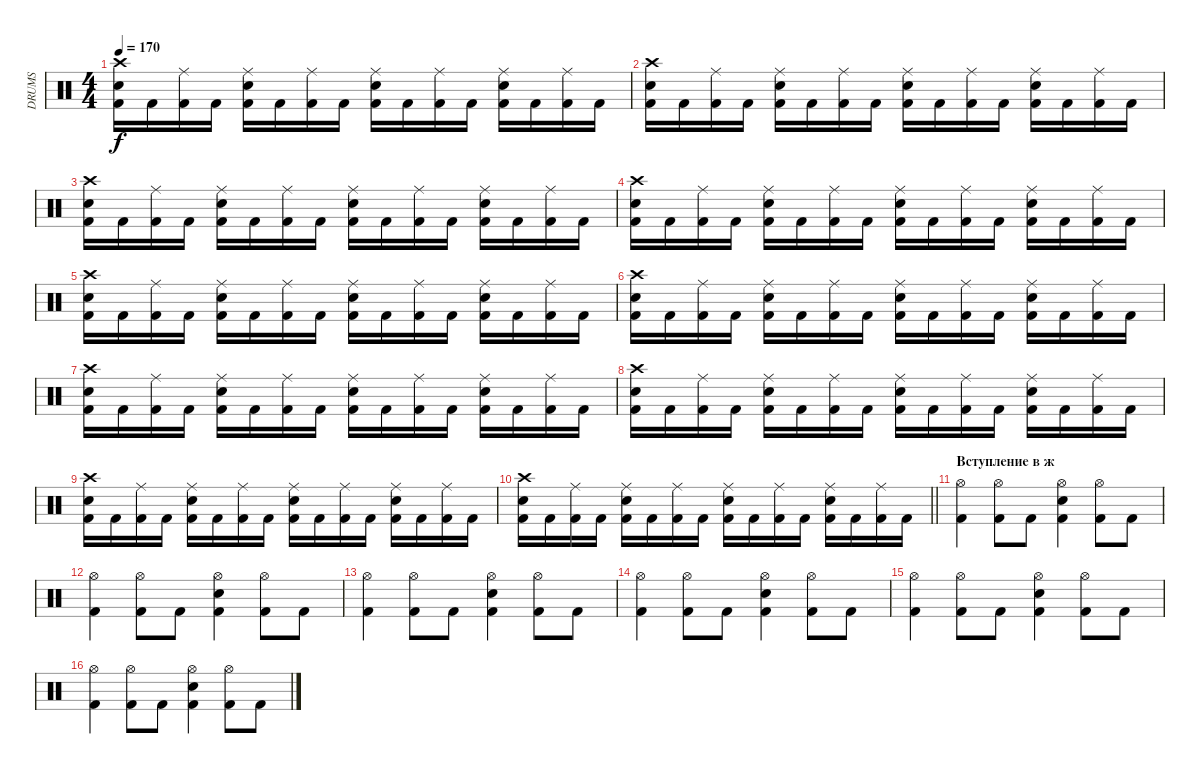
\track ("DRUMS" "DRUMS") {instrument percussion}
\staff {score}
\articulation defaults
\ts (4 4)
\tempo 170
\clef neutral
\ks c
("Kick (hit) 2" "Snare (hit) 2" "Crash high (hit)").16{dy f} "Kick (hit) 2".16 ("Kick (hit) 2" "Ride (middle)").16 "Kick (hit) 2".16 ("Kick (hit) 2" "Snare (hit) 2" "Ride (middle)").16 "Kick (hit) 2".16 ("Kick (hit) 2" "Ride (middle)").16 "Kick (hit) 2".16 ("Kick (hit) 2" "Snare (hit) 2" "Ride (middle)").16 "Kick (hit) 2".16 ("Kick (hit) 2" "Ride (middle)").16 "Kick (hit) 2".16 ("Kick (hit) 2" "Snare (hit) 2" "Ride (middle)").16 "Kick (hit) 2".16 ("Kick (hit) 2" "Ride (middle)").16 "Kick (hit) 2".16 |
("Kick (hit) 2" "Snare (hit) 2" "Crash high (hit)").16 "Kick (hit) 2".16 ("Kick (hit) 2" "Ride (middle)").16 "Kick (hit) 2".16 ("Kick (hit) 2" "Snare (hit) 2" "Ride (middle)").16 "Kick (hit) 2".16 ("Kick (hit) 2" "Ride (middle)").16 "Kick (hit) 2".16 ("Kick (hit) 2" "Snare (hit) 2" "Ride (middle)").16 "Kick (hit) 2".16 ("Kick (hit) 2" "Ride (middle)").16 "Kick (hit) 2".16 ("Kick (hit) 2" "Snare (hit) 2" "Ride (middle)").16 "Kick (hit) 2".16 ("Kick (hit) 2" "Ride (middle)").16 "Kick (hit) 2".16 |
("Kick (hit) 2" "Snare (hit) 2" "Crash high (hit)").16 "Kick (hit) 2".16 ("Kick (hit) 2" "Ride (middle)").16 "Kick (hit) 2".16 ("Kick (hit) 2" "Snare (hit) 2" "Ride (middle)").16 "Kick (hit) 2".16 ("Kick (hit) 2" "Ride (middle)").16 "Kick (hit) 2".16 ("Kick (hit) 2" "Snare (hit) 2" "Ride (middle)").16 "Kick (hit) 2".16 ("Kick (hit) 2" "Ride (middle)").16 "Kick (hit) 2".16 ("Kick (hit) 2" "Snare (hit) 2" "Ride (middle)").16 "Kick (hit) 2".16 ("Kick (hit) 2" "Ride (middle)").16 "Kick (hit) 2".16 |
("Kick (hit) 2" "Snare (hit) 2" "Crash high (hit)").16 "Kick (hit) 2".16 ("Kick (hit) 2" "Ride (middle)").16 "Kick (hit) 2".16 ("Kick (hit) 2" "Snare (hit) 2" "Ride (middle)").16 "Kick (hit) 2".16 ("Kick (hit) 2" "Ride (middle)").16 "Kick (hit) 2".16 ("Kick (hit) 2" "Snare (hit) 2" "Ride (middle)").16 "Kick (hit) 2".16 ("Kick (hit) 2" "Ride (middle)").16 "Kick (hit) 2".16 ("Kick (hit) 2" "Snare (hit) 2" "Ride (middle)").16 "Kick (hit) 2".16 ("Kick (hit) 2" "Ride (middle)").16 "Kick (hit) 2".16 |
("Kick (hit) 2" "Snare (hit) 2" "Crash high (hit)").16 "Kick (hit) 2".16 ("Kick (hit) 2" "Ride (middle)").16 "Kick (hit) 2".16 ("Kick (hit) 2" "Snare (hit) 2" "Ride (middle)").16 "Kick (hit) 2".16 ("Kick (hit) 2" "Ride (middle)").16 "Kick (hit) 2".16 ("Kick (hit) 2" "Snare (hit) 2" "Ride (middle)").16 "Kick (hit) 2".16 ("Kick (hit) 2" "Ride (middle)").16 "Kick (hit) 2".16 ("Kick (hit) 2" "Snare (hit) 2" "Ride (middle)").16 "Kick (hit) 2".16 ("Kick (hit) 2" "Ride (middle)").16 "Kick (hit) 2".16 |
("Kick (hit) 2" "Snare (hit) 2" "Crash high (hit)").16 "Kick (hit) 2".16 ("Kick (hit) 2" "Ride (middle)").16 "Kick (hit) 2".16 ("Kick (hit) 2" "Snare (hit) 2" "Ride (middle)").16 "Kick (hit) 2".16 ("Kick (hit) 2" "Ride (middle)").16 "Kick (hit) 2".16 ("Kick (hit) 2" "Snare (hit) 2" "Ride (middle)").16 "Kick (hit) 2".16 ("Kick (hit) 2" "Ride (middle)").16 "Kick (hit) 2".16 ("Kick (hit) 2" "Snare (hit) 2" "Ride (middle)").16 "Kick (hit) 2".16 ("Kick (hit) 2" "Ride (middle)").16 "Kick (hit) 2".16 |
("Kick (hit) 2" "Snare (hit) 2" "Crash high (hit)").16 "Kick (hit) 2".16 ("Kick (hit) 2" "Ride (middle)").16 "Kick (hit) 2".16 ("Kick (hit) 2" "Snare (hit) 2" "Ride (middle)").16 "Kick (hit) 2".16 ("Kick (hit) 2" "Ride (middle)").16 "Kick (hit) 2".16 ("Kick (hit) 2" "Snare (hit) 2" "Ride (middle)").16 "Kick (hit) 2".16 ("Kick (hit) 2" "Ride (middle)").16 "Kick (hit) 2".16 ("Kick (hit) 2" "Snare (hit) 2" "Ride (middle)").16 "Kick (hit) 2".16 ("Kick (hit) 2" "Ride (middle)").16 "Kick (hit) 2".16 |
("Kick (hit) 2" "Snare (hit) 2" "Crash high (hit)").16 "Kick (hit) 2".16 ("Kick (hit) 2" "Ride (middle)").16 "Kick (hit) 2".16 ("Kick (hit) 2" "Snare (hit) 2" "Ride (middle)").16 "Kick (hit) 2".16 ("Kick (hit) 2" "Ride (middle)").16 "Kick (hit) 2".16 ("Kick (hit) 2" "Snare (hit) 2" "Ride (middle)").16 "Kick (hit) 2".16 ("Kick (hit) 2" "Ride (middle)").16 "Kick (hit) 2".16 ("Kick (hit) 2" "Snare (hit) 2" "Ride (middle)").16 "Kick (hit) 2".16 ("Kick (hit) 2" "Ride (middle)").16 "Kick (hit) 2".16 |
("Kick (hit) 2" "Snare (hit) 2" "Crash high (hit)").16 "Kick (hit) 2".16 ("Kick (hit) 2" "Ride (middle)").16 "Kick (hit) 2".16 ("Kick (hit) 2" "Snare (hit) 2" "Ride (middle)").16 "Kick (hit) 2".16 ("Kick (hit) 2" "Ride (middle)").16 "Kick (hit) 2".16 ("Kick (hit) 2" "Snare (hit) 2" "Ride (middle)").16 "Kick (hit) 2".16 ("Kick (hit) 2" "Ride (middle)").16 "Kick (hit) 2".16 ("Kick (hit) 2" "Snare (hit) 2" "Ride (middle)").16 "Kick (hit) 2".16 ("Kick (hit) 2" "Ride (middle)").16 "Kick (hit) 2".16 |
\barLineRight lightlight
("Kick (hit) 2" "Snare (hit) 2" "Crash high (hit)").16 "Kick (hit) 2".16 ("Kick (hit) 2" "Ride (middle)").16 "Kick (hit) 2".16 ("Kick (hit) 2" "Snare (hit) 2" "Ride (middle)").16 "Kick (hit) 2".16 ("Kick (hit) 2" "Ride (middle)").16 "Kick (hit) 2".16 ("Kick (hit) 2" "Snare (hit) 2" "Ride (middle)").16 "Kick (hit) 2".16 ("Kick (hit) 2" "Ride (middle)").16 "Kick (hit) 2".16 ("Kick (hit) 2" "Snare (hit) 2" "Ride (middle)").16 "Kick (hit) 2".16 ("Kick (hit) 2" "Ride (middle)").16 "Kick (hit) 2".16 |
\section ("" "Вступление в ж")
("Hi-Hat (open)" "Kick (hit) 2").4 ("Hi-Hat (open)" "Kick (hit) 2").8 "Kick (hit) 2".8 ("Hi-Hat (open)" "Snare (hit) 2" "Kick (hit) 2").4 ("Hi-Hat (open)" "Kick (hit) 2").8 "Kick (hit) 2".8 |
("Hi-Hat (open)" "Kick (hit) 2").4 ("Hi-Hat (open)" "Kick (hit) 2").8 "Kick (hit) 2".8 ("Hi-Hat (open)" "Snare (hit) 2" "Kick (hit) 2").4 ("Hi-Hat (open)" "Kick (hit) 2").8 "Kick (hit) 2".8 |
("Hi-Hat (open)" "Kick (hit) 2").4 ("Hi-Hat (open)" "Kick (hit) 2").8 "Kick (hit) 2".8 ("Hi-Hat (open)" "Snare (hit) 2" "Kick (hit) 2").4 ("Hi-Hat (open)" "Kick (hit) 2").8 "Kick (hit) 2".8 |
("Hi-Hat (open)" "Kick (hit) 2").4 ("Hi-Hat (open)" "Kick (hit) 2").8 "Kick (hit) 2".8 ("Hi-Hat (open)" "Snare (hit) 2" "Kick (hit) 2").4 ("Hi-Hat (open)" "Kick (hit) 2").8 "Kick (hit) 2".8 |
("Hi-Hat (open)" "Kick (hit) 2").4 ("Hi-Hat (open)" "Kick (hit) 2").8 "Kick (hit) 2".8 ("Hi-Hat (open)" "Snare (hit) 2" "Kick (hit) 2").4 ("Hi-Hat (open)" "Kick (hit) 2").8 "Kick (hit) 2".8 |
("Hi-Hat (open)" "Kick (hit) 2").4 ("Hi-Hat (open)" "Kick (hit) 2").8 "Kick (hit) 2".8 ("Hi-Hat (open)" "Snare (hit) 2" "Kick (hit) 2").4 ("Hi-Hat (open)" "Kick (hit) 2").8 "Kick (hit) 2".8
